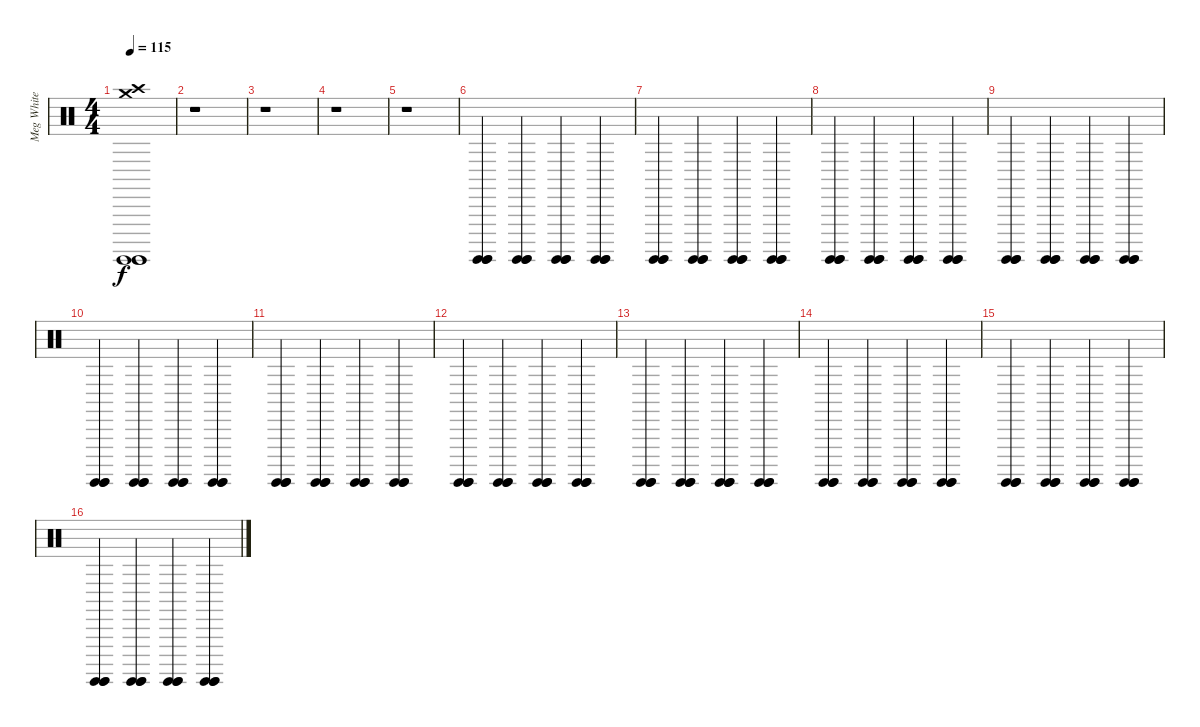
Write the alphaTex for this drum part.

\track ("Meg White" "Meg White") {instrument percussion}
\staff {score}
\articulation defaults
\ts (4 4)
\tempo 115
\clef neutral
\ks c
("Surdo (hit)" "Surdo (hit)" "Surdo (hit)" "Crash medium (hit)" "Crash high (hit)").1{dy f} |
r.1 |
r.1 |
r.1 |
r.1 |
("Surdo (hit)" "Surdo (hit)" "Surdo (hit)").4 ("Surdo (hit)" "Surdo (hit)" "Surdo (hit)").4 ("Surdo (hit)" "Surdo (hit)" "Surdo (hit)").4 ("Surdo (hit)" "Surdo (hit)" "Surdo (hit)").4 |
("Surdo (hit)" "Surdo (hit)" "Surdo (hit)").4 ("Surdo (hit)" "Surdo (hit)" "Surdo (hit)").4 ("Surdo (hit)" "Surdo (hit)" "Surdo (hit)").4 ("Surdo (hit)" "Surdo (hit)" "Surdo (hit)").4 |
("Surdo (hit)" "Surdo (hit)" "Surdo (hit)").4 ("Surdo (hit)" "Surdo (hit)" "Surdo (hit)").4 ("Surdo (hit)" "Surdo (hit)" "Surdo (hit)").4 ("Surdo (hit)" "Surdo (hit)" "Surdo (hit)").4 |
("Surdo (hit)" "Surdo (hit)" "Surdo (hit)").4 ("Surdo (hit)" "Surdo (hit)" "Surdo (hit)").4 ("Surdo (hit)" "Surdo (hit)" "Surdo (hit)").4 ("Surdo (hit)" "Surdo (hit)" "Surdo (hit)").4 |
("Surdo (hit)" "Surdo (hit)" "Surdo (hit)").4 ("Surdo (hit)" "Surdo (hit)" "Surdo (hit)").4 ("Surdo (hit)" "Surdo (hit)" "Surdo (hit)").4 ("Surdo (hit)" "Surdo (hit)" "Surdo (hit)").4 |
("Surdo (hit)" "Surdo (hit)" "Surdo (hit)").4 ("Surdo (hit)" "Surdo (hit)" "Surdo (hit)").4 ("Surdo (hit)" "Surdo (hit)" "Surdo (hit)").4 ("Surdo (hit)" "Surdo (hit)" "Surdo (hit)").4 |
("Surdo (hit)" "Surdo (hit)" "Surdo (hit)").4 ("Surdo (hit)" "Surdo (hit)" "Surdo (hit)").4 ("Surdo (hit)" "Surdo (hit)" "Surdo (hit)").4 ("Surdo (hit)" "Surdo (hit)" "Surdo (hit)").4 |
("Surdo (hit)" "Surdo (hit)" "Surdo (hit)").4 ("Surdo (hit)" "Surdo (hit)" "Surdo (hit)").4 ("Surdo (hit)" "Surdo (hit)" "Surdo (hit)").4 ("Surdo (hit)" "Surdo (hit)" "Surdo (hit)").4 |
("Surdo (hit)" "Surdo (hit)" "Surdo (hit)").4 ("Surdo (hit)" "Surdo (hit)" "Surdo (hit)").4 ("Surdo (hit)" "Surdo (hit)" "Surdo (hit)").4 ("Surdo (hit)" "Surdo (hit)" "Surdo (hit)").4 |
("Surdo (hit)" "Surdo (hit)" "Surdo (hit)").4 ("Surdo (hit)" "Surdo (hit)" "Surdo (hit)").4 ("Surdo (hit)" "Surdo (hit)" "Surdo (hit)").4 ("Surdo (hit)" "Surdo (hit)" "Surdo (hit)").4 |
("Surdo (hit)" "Surdo (hit)" "Surdo (hit)").4 ("Surdo (hit)" "Surdo (hit)" "Surdo (hit)").4 ("Surdo (hit)" "Surdo (hit)" "Surdo (hit)").4 ("Surdo (hit)" "Surdo (hit)" "Surdo (hit)").4
